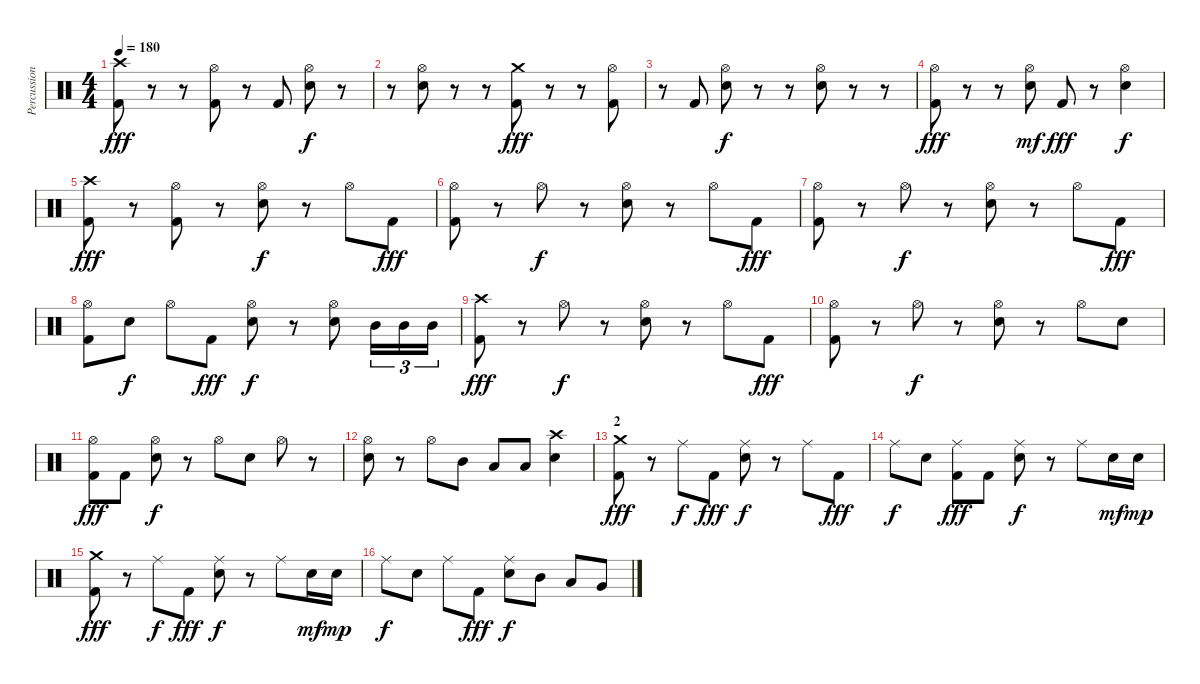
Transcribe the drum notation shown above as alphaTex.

\track ("Percussion" "Percussion") {instrument percussion}
\staff {score}
\articulation defaults
\ts (4 4)
\tempo 180
\clef neutral
\ks c
("Crash high (hit)" "Kick (hit) 2").8{dy fff} r.8 r.8 ("Hi-Hat (open)" "Kick (hit) 2").8 r.8 "Kick (hit) 2".8 ("Hi-Hat (open)" "Snare (hit) 2").8{dy f} r.8 |
r.8 ("Hi-Hat (open)" "Snare (hit) 2").8 r.8 r.8 ("Crash medium (hit)" "Kick (hit) 2").8{dy fff} r.8 r.8 ("Hi-Hat (open)" "Kick (hit) 2").8 |
r.8 "Kick (hit) 2".8 ("Hi-Hat (open)" "Snare (hit) 2").8{dy f} r.8 r.8 ("Hi-Hat (open)" "Snare (hit) 2").8 r.8 r.8 |
("Hi-Hat (open)" "Kick (hit) 2").8{dy fff} r.8 r.8 ("Hi-Hat (open)" "Snare (hit) 2").8{dy mf} "Kick (hit) 2".8{dy fff} r.8 ("Hi-Hat (open)" "Snare (hit) 2").4{dy f} |
("Crash high (hit)" "Kick (hit) 2").8{dy fff} r.8 ("Hi-Hat (open)" "Kick (hit) 2").8 r.8 ("Hi-Hat (open)" "Snare (hit) 2").8{dy f} r.8 "Hi-Hat (open)".8 "Kick (hit) 2".8{dy fff} |
("Hi-Hat (open)" "Kick (hit) 2").8 r.8 "Hi-Hat (open)".8{dy f} r.8 ("Hi-Hat (open)" "Snare (hit) 2").8 r.8 "Hi-Hat (open)".8 "Kick (hit) 2".8{dy fff} |
("Hi-Hat (open)" "Kick (hit) 2").8 r.8 "Hi-Hat (open)".8{dy f} r.8 ("Hi-Hat (open)" "Snare (hit) 2").8 r.8 "Hi-Hat (open)".8 "Kick (hit) 2".8{dy fff} |
("Hi-Hat (open)" "Kick (hit) 2").8 "Snare (hit) 2".8{dy f} "Hi-Hat (open)".8 "Kick (hit) 2".8{dy fff} ("Hi-Hat (open)" "Snare (hit) 2").8{dy f} r.8 ("Hi-Hat (open)" "Snare (hit) 2").8 "Mid Tom (hit)".16{tu (3 2)} "Mid Tom (hit)".16{tu (3 2)} "Mid Tom (hit)".16{tu (3 2)} |
("Crash high (hit)" "Kick (hit) 2").8{dy fff} r.8 "Hi-Hat (open)".8{dy f} r.8 ("Hi-Hat (open)" "Snare (hit) 2").8 r.8 "Hi-Hat (open)".8 "Kick (hit) 2".8{dy fff} |
("Hi-Hat (open)" "Kick (hit) 2").8 r.8 "Hi-Hat (open)".8{dy f} r.8 ("Hi-Hat (open)" "Snare (hit) 2").8 r.8 "Hi-Hat (open)".8 "Snare (hit) 2".8 |
("Hi-Hat (open)" "Kick (hit) 2").8{dy fff} "Kick (hit) 2".8 ("Hi-Hat (open)" "Snare (hit) 2").8{dy f} r.8 "Hi-Hat (open)".8 "Snare (hit) 2".8 "Hi-Hat (open)".8 r.8 |
("Hi-Hat (open)" "Snare (hit) 2").8 r.8 "Hi-Hat (open)".8 "Mid Tom (hit)".8 "Low Tom (hit)".8 "Low Tom (hit)".8 ("Crash high (hit)" "Snare (hit) 2").4 |
\section ("" "2")
("Crash medium (hit)" "Kick (hit) 2").8{dy fff} r.8 "Ride (middle)".8{dy f} "Kick (hit) 2".8{dy fff} ("Ride (middle)" "Electric Snare (hit)").8{dy f} r.8 "Ride (middle)".8 "Kick (hit) 2".8{dy fff} |
"Ride (middle)".8{dy f} "Electric Snare (hit)".8 ("Ride (middle)" "Kick (hit) 2").8{dy fff} "Kick (hit) 2".8 ("Ride (middle)" "Electric Snare (hit)").8{dy f} r.8 "Ride (middle)".8 "Electric Snare (hit)".16{dy mf} "Electric Snare (hit)".16{dy mp} |
("Crash medium (hit)" "Kick (hit) 2").8{dy fff} r.8 "Ride (middle)".8{dy f} "Kick (hit) 2".8{dy fff} ("Ride (middle)" "Electric Snare (hit)").8{dy f} r.8 "Ride (middle)".8 "Electric Snare (hit)".16{dy mf} "Electric Snare (hit)".16{dy mp} |
"Ride (middle)".8{dy f} "Electric Snare (hit)".8 "Ride (middle)".8 "Kick (hit) 2".8{dy fff} ("Ride (middle)" "Electric Snare (hit)").8{dy f} "Mid Tom (hit)".8 "Low Tom (hit)".8 "Very Low Tom (hit)".8
